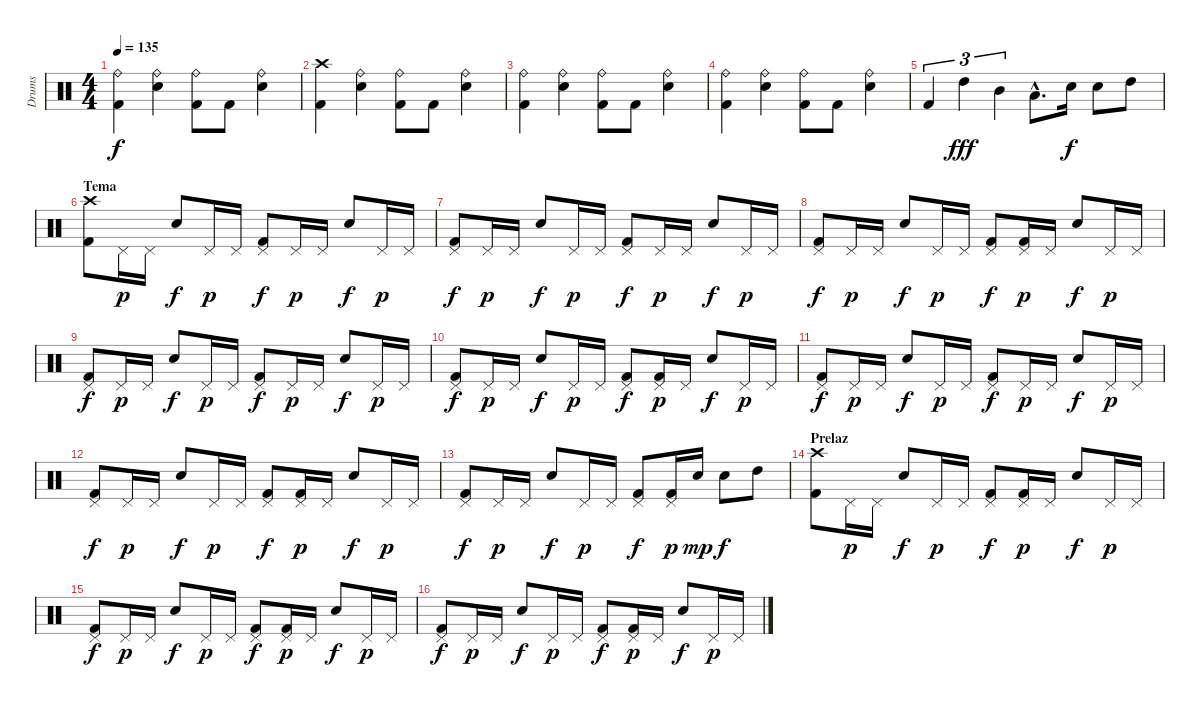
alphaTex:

\track ("Drums" "Drums") {instrument percussion}
\staff {score}
\articulation defaults
\ts (4 4)
\tempo 135
\clef neutral
\ks c
("Ride (bell)" "Kick (hit) 2").4{dy f} ("Ride (bell)" "Electric Snare (hit)").4 ("Ride (bell)" "Kick (hit) 2").8 "Kick (hit) 2".8 ("Ride (bell)" "Electric Snare (hit)").4 |
("Crash high (hit)" "Kick (hit) 2").4 ("Ride (bell)" "Electric Snare (hit)").4 ("Ride (bell)" "Kick (hit) 2").8 "Kick (hit) 2".8 ("Ride (bell)" "Electric Snare (hit)").4 |
("Ride (bell)" "Kick (hit) 2").4 ("Ride (bell)" "Electric Snare (hit)").4 ("Ride (bell)" "Kick (hit) 2").8 "Kick (hit) 2".8 ("Ride (bell)" "Electric Snare (hit)").4 |
("Ride (bell)" "Kick (hit) 2").4 ("Ride (bell)" "Electric Snare (hit)").4 ("Ride (bell)" "Kick (hit) 2").8 "Kick (hit) 2".8 ("Ride (bell)" "Electric Snare (hit)").4 |
"Kick (hit) 2".4{tu (3 2)} "High Tom (hit)".4{tu (3 2) dy fff} "Mid Tom (hit)".4{tu (3 2)} "Low Tom (hit)"{hac}.8{d} "Electric Snare (hit)".16{dy f} "Electric Snare (hit)".8 "High Tom (hit)".8 |
\section ("" "Tema")
("Crash high (hit)" "Kick (hit) 2").8 "Pedal Hi-Hat (hit)".16{dy p} "Pedal Hi-Hat (hit)".16 "Electric Snare (hit)".8{dy f} "Pedal Hi-Hat (hit)".16{dy p} "Pedal Hi-Hat (hit)".16 ("Pedal Hi-Hat (hit)" "Kick (hit) 2").8{dy f} "Pedal Hi-Hat (hit)".16{dy p} "Pedal Hi-Hat (hit)".16 "Electric Snare (hit)".8{dy f} "Pedal Hi-Hat (hit)".16{dy p} "Pedal Hi-Hat (hit)".16 |
("Pedal Hi-Hat (hit)" "Kick (hit) 2").8{dy f} "Pedal Hi-Hat (hit)".16{dy p} "Pedal Hi-Hat (hit)".16 "Electric Snare (hit)".8{dy f} "Pedal Hi-Hat (hit)".16{dy p} "Pedal Hi-Hat (hit)".16 ("Pedal Hi-Hat (hit)" "Kick (hit) 2").8{dy f} "Pedal Hi-Hat (hit)".16{dy p} "Pedal Hi-Hat (hit)".16 "Electric Snare (hit)".8{dy f} "Pedal Hi-Hat (hit)".16{dy p} "Pedal Hi-Hat (hit)".16 |
("Pedal Hi-Hat (hit)" "Kick (hit) 2").8{dy f} "Pedal Hi-Hat (hit)".16{dy p} "Pedal Hi-Hat (hit)".16 "Electric Snare (hit)".8{dy f} "Pedal Hi-Hat (hit)".16{dy p} "Pedal Hi-Hat (hit)".16 ("Pedal Hi-Hat (hit)" "Kick (hit) 2").8{dy f} ("Pedal Hi-Hat (hit)" "Kick (hit) 2").16{dy p} "Pedal Hi-Hat (hit)".16 "Electric Snare (hit)".8{dy f} "Pedal Hi-Hat (hit)".16{dy p} "Pedal Hi-Hat (hit)".16 |
("Pedal Hi-Hat (hit)" "Kick (hit) 2").8{dy f} "Pedal Hi-Hat (hit)".16{dy p} "Pedal Hi-Hat (hit)".16 "Electric Snare (hit)".8{dy f} "Pedal Hi-Hat (hit)".16{dy p} "Pedal Hi-Hat (hit)".16 ("Pedal Hi-Hat (hit)" "Kick (hit) 2").8{dy f} "Pedal Hi-Hat (hit)".16{dy p} "Pedal Hi-Hat (hit)".16 "Electric Snare (hit)".8{dy f} "Pedal Hi-Hat (hit)".16{dy p} "Pedal Hi-Hat (hit)".16 |
("Pedal Hi-Hat (hit)" "Kick (hit) 2").8{dy f} "Pedal Hi-Hat (hit)".16{dy p} "Pedal Hi-Hat (hit)".16 "Electric Snare (hit)".8{dy f} "Pedal Hi-Hat (hit)".16{dy p} "Pedal Hi-Hat (hit)".16 ("Pedal Hi-Hat (hit)" "Kick (hit) 2").8{dy f} ("Pedal Hi-Hat (hit)" "Kick (hit) 2").16{dy p} "Pedal Hi-Hat (hit)".16 "Electric Snare (hit)".8{dy f} "Pedal Hi-Hat (hit)".16{dy p} "Pedal Hi-Hat (hit)".16 |
("Pedal Hi-Hat (hit)" "Kick (hit) 2").8{dy f} "Pedal Hi-Hat (hit)".16{dy p} "Pedal Hi-Hat (hit)".16 "Electric Snare (hit)".8{dy f} "Pedal Hi-Hat (hit)".16{dy p} "Pedal Hi-Hat (hit)".16 ("Pedal Hi-Hat (hit)" "Kick (hit) 2").8{dy f} "Pedal Hi-Hat (hit)".16{dy p} "Pedal Hi-Hat (hit)".16 "Electric Snare (hit)".8{dy f} "Pedal Hi-Hat (hit)".16{dy p} "Pedal Hi-Hat (hit)".16 |
("Pedal Hi-Hat (hit)" "Kick (hit) 2").8{dy f} "Pedal Hi-Hat (hit)".16{dy p} "Pedal Hi-Hat (hit)".16 "Electric Snare (hit)".8{dy f} "Pedal Hi-Hat (hit)".16{dy p} "Pedal Hi-Hat (hit)".16 ("Pedal Hi-Hat (hit)" "Kick (hit) 2").8{dy f} ("Pedal Hi-Hat (hit)" "Kick (hit) 2").16{dy p} "Pedal Hi-Hat (hit)".16 "Electric Snare (hit)".8{dy f} "Pedal Hi-Hat (hit)".16{dy p} "Pedal Hi-Hat (hit)".16 |
("Pedal Hi-Hat (hit)" "Kick (hit) 2").8{dy f} "Pedal Hi-Hat (hit)".16{dy p} "Pedal Hi-Hat (hit)".16 "Electric Snare (hit)".8{dy f} "Pedal Hi-Hat (hit)".16{dy p} "Pedal Hi-Hat (hit)".16 ("Pedal Hi-Hat (hit)" "Kick (hit) 2").8{dy f} ("Pedal Hi-Hat (hit)" "Kick (hit) 2").16{dy p} "Electric Snare (hit)".16{dy mp} "Electric Snare (hit)".8{dy f} "High Tom (hit)".8 |
\section ("" "Prelaz")
("Crash high (hit)" "Kick (hit) 2").8 "Pedal Hi-Hat (hit)".16{dy p} "Pedal Hi-Hat (hit)".16 "Electric Snare (hit)".8{dy f} "Pedal Hi-Hat (hit)".16{dy p} "Pedal Hi-Hat (hit)".16 ("Pedal Hi-Hat (hit)" "Kick (hit) 2").8{dy f} ("Pedal Hi-Hat (hit)" "Kick (hit) 2").16{dy p} "Pedal Hi-Hat (hit)".16 "Electric Snare (hit)".8{dy f} "Pedal Hi-Hat (hit)".16{dy p} "Pedal Hi-Hat (hit)".16 |
("Pedal Hi-Hat (hit)" "Kick (hit) 2").8{dy f} "Pedal Hi-Hat (hit)".16{dy p} "Pedal Hi-Hat (hit)".16 "Electric Snare (hit)".8{dy f} "Pedal Hi-Hat (hit)".16{dy p} "Pedal Hi-Hat (hit)".16 ("Pedal Hi-Hat (hit)" "Kick (hit) 2").8{dy f} ("Pedal Hi-Hat (hit)" "Kick (hit) 2").16{dy p} "Pedal Hi-Hat (hit)".16 "Electric Snare (hit)".8{dy f} "Pedal Hi-Hat (hit)".16{dy p} "Pedal Hi-Hat (hit)".16 |
("Pedal Hi-Hat (hit)" "Kick (hit) 2").8{dy f} "Pedal Hi-Hat (hit)".16{dy p} "Pedal Hi-Hat (hit)".16 "Electric Snare (hit)".8{dy f} "Pedal Hi-Hat (hit)".16{dy p} "Pedal Hi-Hat (hit)".16 ("Pedal Hi-Hat (hit)" "Kick (hit) 2").8{dy f} ("Pedal Hi-Hat (hit)" "Kick (hit) 2").16{dy p} "Pedal Hi-Hat (hit)".16 "Electric Snare (hit)".8{dy f} "Pedal Hi-Hat (hit)".16{dy p} "Pedal Hi-Hat (hit)".16
